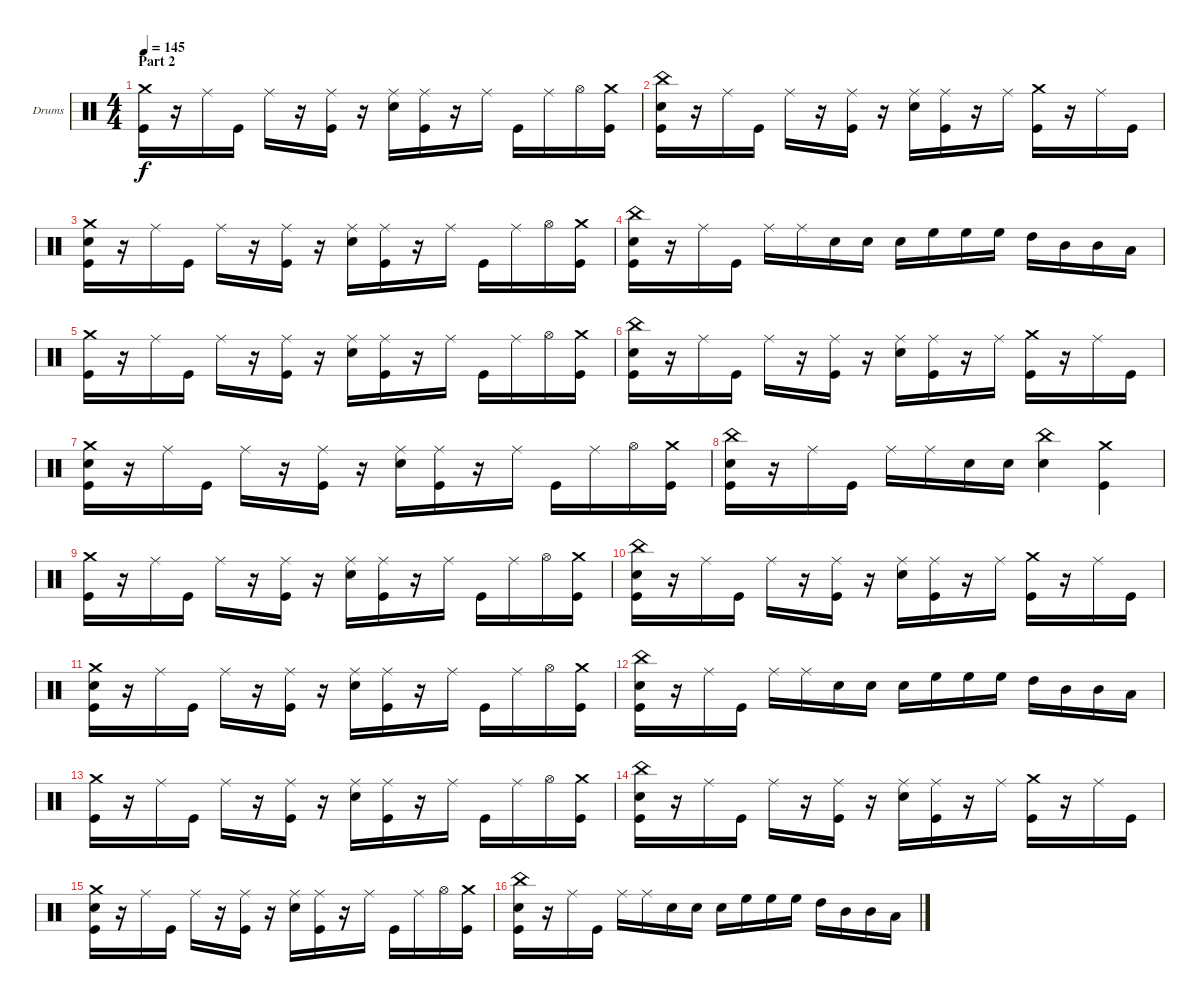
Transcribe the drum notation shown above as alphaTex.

\bracketExtendMode groupsimilarinstruments
\firstSystemTrackNameOrientation horizontal
\otherSystemsTrackNameOrientation horizontal
\track ("Drumkit" "Drums") {instrument percussion}
\staff {score}
\articulation defaults
\ts (4 4)
\section ("" "Part 2")
\tempo 145
\clef neutral
\ks c
("Crash medium (hit)" "Kick (hit)").16{dy f} r.16 "Ride (middle)".16 "Kick (hit)".16 "Ride (middle)".16 r.16 ("Ride (middle)" "Kick (hit)").16 r.16 ("Ride (middle)" "Snare (hit) 2").16 ("Ride (middle)" "Kick (hit)").16 r.16 "Ride (middle)".16 "Kick (hit)".16 "Ride (middle)".16 "Hi-Hat (open)".16 ("Crash medium (hit)" "Kick (hit)").16 |
("China (hit)" "Snare (hit) 2" "Kick (hit)").16 r.16 "Ride (middle)".16 "Kick (hit)".16 "Ride (middle)".16 r.16 ("Ride (middle)" "Kick (hit)").16 r.16 ("Ride (middle)" "Snare (hit) 2").16 ("Ride (middle)" "Kick (hit)").16 r.16 "Ride (middle)".16 ("Crash medium (hit)" "Kick (hit)").16 r.16 "Ride (middle)".16 "Kick (hit)".16 |
("Crash medium (hit)" "Snare (hit) 2" "Kick (hit)").16 r.16 "Ride (middle)".16 "Kick (hit)".16 "Ride (middle)".16 r.16 ("Ride (middle)" "Kick (hit)").16 r.16 ("Ride (middle)" "Snare (hit) 2").16 ("Ride (middle)" "Kick (hit)").16 r.16 "Ride (middle)".16 "Kick (hit)".16 "Ride (middle)".16 "Hi-Hat (open)".16 ("Crash medium (hit)" "Kick (hit)").16 |
("China (hit)" "Snare (hit) 2" "Kick (hit)").16 r.16 "Ride (middle)".16 "Kick (hit)".16 "Ride (middle)".16 "Ride (middle)".16 "Snare (hit) 2".16 "Snare (hit) 2".16 "Snare (hit) 2".16 "High Floor Tom (hit)".16 "High Floor Tom (hit)".16 "High Floor Tom (hit)".16 "High Tom (hit)".16 "Mid Tom (hit)".16 "Mid Tom (hit)".16 "Low Tom (hit)".16 |
("Crash medium (hit)" "Kick (hit)").16 r.16 "Ride (middle)".16 "Kick (hit)".16 "Ride (middle)".16 r.16 ("Ride (middle)" "Kick (hit)").16 r.16 ("Ride (middle)" "Snare (hit) 2").16 ("Ride (middle)" "Kick (hit)").16 r.16 "Ride (middle)".16 "Kick (hit)".16 "Ride (middle)".16 "Hi-Hat (open)".16 ("Crash medium (hit)" "Kick (hit)").16 |
("China (hit)" "Snare (hit) 2" "Kick (hit)").16 r.16 "Ride (middle)".16 "Kick (hit)".16 "Ride (middle)".16 r.16 ("Ride (middle)" "Kick (hit)").16 r.16 ("Ride (middle)" "Snare (hit) 2").16 ("Ride (middle)" "Kick (hit)").16 r.16 "Ride (middle)".16 ("Crash medium (hit)" "Kick (hit)").16 r.16 "Ride (middle)".16 "Kick (hit)".16 |
("Crash medium (hit)" "Snare (hit) 2" "Kick (hit)").16 r.16 "Ride (middle)".16 "Kick (hit)".16 "Ride (middle)".16 r.16 ("Ride (middle)" "Kick (hit)").16 r.16 ("Ride (middle)" "Snare (hit) 2").16 ("Ride (middle)" "Kick (hit)").16 r.16 "Ride (middle)".16 "Kick (hit)".16 "Ride (middle)".16 "Hi-Hat (open)".16 ("Crash medium (hit)" "Kick (hit)").16 |
("China (hit)" "Snare (hit) 2" "Kick (hit)").16 r.16 "Ride (middle)".16 "Kick (hit)".16 "Ride (middle)".16 "Ride (middle)".16 "Snare (hit) 2".16 "Snare (hit) 2".16 ("China (hit)" "Snare (hit) 2").4 ("Crash medium (hit)" "Kick (hit)").4 |
("Crash medium (hit)" "Kick (hit)").16 r.16 "Ride (middle)".16 "Kick (hit)".16 "Ride (middle)".16 r.16 ("Ride (middle)" "Kick (hit)").16 r.16 ("Ride (middle)" "Snare (hit) 2").16 ("Ride (middle)" "Kick (hit)").16 r.16 "Ride (middle)".16 "Kick (hit)".16 "Ride (middle)".16 "Hi-Hat (open)".16 ("Crash medium (hit)" "Kick (hit)").16 |
("China (hit)" "Snare (hit) 2" "Kick (hit)").16 r.16 "Ride (middle)".16 "Kick (hit)".16 "Ride (middle)".16 r.16 ("Ride (middle)" "Kick (hit)").16 r.16 ("Ride (middle)" "Snare (hit) 2").16 ("Ride (middle)" "Kick (hit)").16 r.16 "Ride (middle)".16 ("Crash medium (hit)" "Kick (hit)").16 r.16 "Ride (middle)".16 "Kick (hit)".16 |
("Crash medium (hit)" "Snare (hit) 2" "Kick (hit)").16 r.16 "Ride (middle)".16 "Kick (hit)".16 "Ride (middle)".16 r.16 ("Ride (middle)" "Kick (hit)").16 r.16 ("Ride (middle)" "Snare (hit) 2").16 ("Ride (middle)" "Kick (hit)").16 r.16 "Ride (middle)".16 "Kick (hit)".16 "Ride (middle)".16 "Hi-Hat (open)".16 ("Crash medium (hit)" "Kick (hit)").16 |
("China (hit)" "Snare (hit) 2" "Kick (hit)").16 r.16 "Ride (middle)".16 "Kick (hit)".16 "Ride (middle)".16 "Ride (middle)".16 "Snare (hit) 2".16 "Snare (hit) 2".16 "Snare (hit) 2".16 "High Floor Tom (hit)".16 "High Floor Tom (hit)".16 "High Floor Tom (hit)".16 "High Tom (hit)".16 "Mid Tom (hit)".16 "Mid Tom (hit)".16 "Low Tom (hit)".16 |
("Crash medium (hit)" "Kick (hit)").16 r.16 "Ride (middle)".16 "Kick (hit)".16 "Ride (middle)".16 r.16 ("Ride (middle)" "Kick (hit)").16 r.16 ("Ride (middle)" "Snare (hit) 2").16 ("Ride (middle)" "Kick (hit)").16 r.16 "Ride (middle)".16 "Kick (hit)".16 "Ride (middle)".16 "Hi-Hat (open)".16 ("Crash medium (hit)" "Kick (hit)").16 |
("China (hit)" "Snare (hit) 2" "Kick (hit)").16 r.16 "Ride (middle)".16 "Kick (hit)".16 "Ride (middle)".16 r.16 ("Ride (middle)" "Kick (hit)").16 r.16 ("Ride (middle)" "Snare (hit) 2").16 ("Ride (middle)" "Kick (hit)").16 r.16 "Ride (middle)".16 ("Crash medium (hit)" "Kick (hit)").16 r.16 "Ride (middle)".16 "Kick (hit)".16 |
("Crash medium (hit)" "Snare (hit) 2" "Kick (hit)").16 r.16 "Ride (middle)".16 "Kick (hit)".16 "Ride (middle)".16 r.16 ("Ride (middle)" "Kick (hit)").16 r.16 ("Ride (middle)" "Snare (hit) 2").16 ("Ride (middle)" "Kick (hit)").16 r.16 "Ride (middle)".16 "Kick (hit)".16 "Ride (middle)".16 "Hi-Hat (open)".16 ("Crash medium (hit)" "Kick (hit)").16 |
("China (hit)" "Snare (hit) 2" "Kick (hit)").16 r.16 "Ride (middle)".16 "Kick (hit)".16 "Ride (middle)".16 "Ride (middle)".16 "Snare (hit) 2".16 "Snare (hit) 2".16 "Snare (hit) 2".16 "High Floor Tom (hit)".16 "High Floor Tom (hit)".16 "High Floor Tom (hit)".16 "High Tom (hit)".16 "Mid Tom (hit)".16 "Mid Tom (hit)".16 "Low Tom (hit)".16
